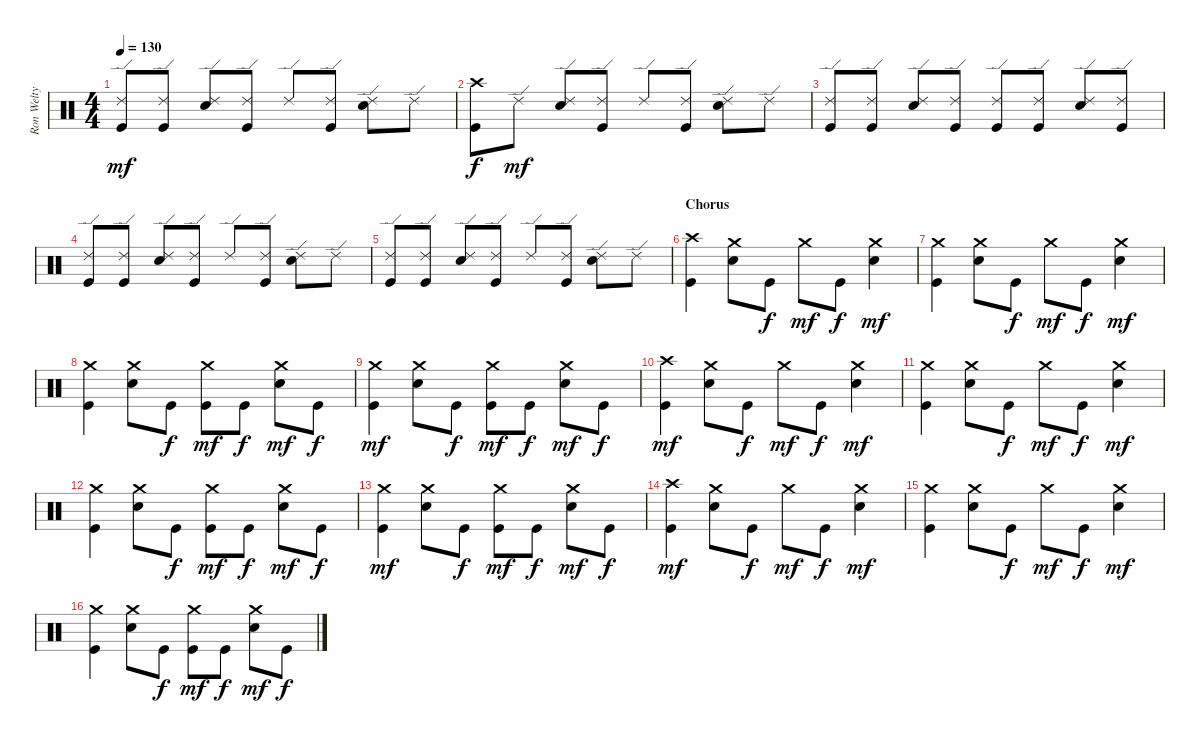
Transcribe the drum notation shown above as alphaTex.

\track ("Ron Welty" "Ron Welty") {instrument percussion}
\staff {score}
\articulation defaults
\ts (4 4)
\tempo 130
\clef neutral
\ks c
("Kick (hit)" "Ride (edge) 2").8{dy mf} ("Kick (hit)" "Ride (edge) 2").8 ("Electric Snare (hit)" "Ride (edge) 2").8 ("Kick (hit)" "Ride (edge) 2").8 "Ride (edge) 2".8 ("Kick (hit)" "Ride (edge) 2").8 ("Electric Snare (hit)" "Ride (edge) 2").8 "Ride (edge) 2".8 |
("Kick (hit)" "Crash high (hit)").8{dy f} "Ride (edge) 2".8{dy mf} ("Electric Snare (hit)" "Ride (edge) 2").8 ("Kick (hit)" "Ride (edge) 2").8 "Ride (edge) 2".8 ("Kick (hit)" "Ride (edge) 2").8 ("Electric Snare (hit)" "Ride (edge) 2").8 "Ride (edge) 2".8 |
("Kick (hit)" "Ride (edge) 2").8 ("Kick (hit)" "Ride (edge) 2").8 ("Electric Snare (hit)" "Ride (edge) 2").8 ("Kick (hit)" "Ride (edge) 2").8 ("Kick (hit)" "Ride (edge) 2").8 ("Kick (hit)" "Ride (edge) 2").8 ("Electric Snare (hit)" "Ride (edge) 2").8 ("Kick (hit)" "Ride (edge) 2").8 |
("Kick (hit)" "Ride (edge) 2").8 ("Kick (hit)" "Ride (edge) 2").8 ("Electric Snare (hit)" "Ride (edge) 2").8 ("Kick (hit)" "Ride (edge) 2").8 "Ride (edge) 2".8 ("Kick (hit)" "Ride (edge) 2").8 ("Electric Snare (hit)" "Ride (edge) 2").8 "Ride (edge) 2".8 |
("Kick (hit)" "Ride (edge) 2").8 ("Kick (hit)" "Ride (edge) 2").8 ("Electric Snare (hit)" "Ride (edge) 2").8 ("Kick (hit)" "Ride (edge) 2").8 "Ride (edge) 2".8 ("Kick (hit)" "Ride (edge) 2").8 ("Electric Snare (hit)" "Ride (edge) 2").8 "Ride (edge) 2".8 |
\section ("" "Chorus")
("Kick (hit)" "Crash high (hit)").4 ("Electric Snare (hit)" "Crash medium (hit)").8 "Kick (hit)".8{dy f} "Crash medium (hit)".8{dy mf} "Kick (hit)".8{dy f} ("Electric Snare (hit)" "Crash medium (hit)").4{dy mf} |
("Kick (hit)" "Crash medium (hit)").4 ("Electric Snare (hit)" "Crash medium (hit)").8 "Kick (hit)".8{dy f} "Crash medium (hit)".8{dy mf} "Kick (hit)".8{dy f} ("Electric Snare (hit)" "Crash medium (hit)").4{dy mf} |
("Kick (hit)" "Crash medium (hit)").4 ("Electric Snare (hit)" "Crash medium (hit)").8 "Kick (hit)".8{dy f} ("Kick (hit)" "Crash medium (hit)").8{dy mf} "Kick (hit)".8{dy f} ("Electric Snare (hit)" "Crash medium (hit)").8{dy mf} "Kick (hit)".8{dy f} |
("Kick (hit)" "Crash medium (hit)").4{dy mf} ("Electric Snare (hit)" "Crash medium (hit)").8 "Kick (hit)".8{dy f} ("Kick (hit)" "Crash medium (hit)").8{dy mf} "Kick (hit)".8{dy f} ("Electric Snare (hit)" "Crash medium (hit)").8{dy mf} "Kick (hit)".8{dy f} |
("Kick (hit)" "Crash high (hit)").4{dy mf} ("Electric Snare (hit)" "Crash medium (hit)").8 "Kick (hit)".8{dy f} "Crash medium (hit)".8{dy mf} "Kick (hit)".8{dy f} ("Electric Snare (hit)" "Crash medium (hit)").4{dy mf} |
("Kick (hit)" "Crash medium (hit)").4 ("Electric Snare (hit)" "Crash medium (hit)").8 "Kick (hit)".8{dy f} "Crash medium (hit)".8{dy mf} "Kick (hit)".8{dy f} ("Electric Snare (hit)" "Crash medium (hit)").4{dy mf} |
("Kick (hit)" "Crash medium (hit)").4 ("Electric Snare (hit)" "Crash medium (hit)").8 "Kick (hit)".8{dy f} ("Kick (hit)" "Crash medium (hit)").8{dy mf} "Kick (hit)".8{dy f} ("Electric Snare (hit)" "Crash medium (hit)").8{dy mf} "Kick (hit)".8{dy f} |
("Kick (hit)" "Crash medium (hit)").4{dy mf} ("Electric Snare (hit)" "Crash medium (hit)").8 "Kick (hit)".8{dy f} ("Kick (hit)" "Crash medium (hit)").8{dy mf} "Kick (hit)".8{dy f} ("Electric Snare (hit)" "Crash medium (hit)").8{dy mf} "Kick (hit)".8{dy f} |
("Kick (hit)" "Crash high (hit)").4{dy mf} ("Electric Snare (hit)" "Crash medium (hit)").8 "Kick (hit)".8{dy f} "Crash medium (hit)".8{dy mf} "Kick (hit)".8{dy f} ("Electric Snare (hit)" "Crash medium (hit)").4{dy mf} |
("Kick (hit)" "Crash medium (hit)").4 ("Electric Snare (hit)" "Crash medium (hit)").8 "Kick (hit)".8{dy f} "Crash medium (hit)".8{dy mf} "Kick (hit)".8{dy f} ("Electric Snare (hit)" "Crash medium (hit)").4{dy mf} |
("Kick (hit)" "Crash medium (hit)").4 ("Electric Snare (hit)" "Crash medium (hit)").8 "Kick (hit)".8{dy f} ("Kick (hit)" "Crash medium (hit)").8{dy mf} "Kick (hit)".8{dy f} ("Electric Snare (hit)" "Crash medium (hit)").8{dy mf} "Kick (hit)".8{dy f}
